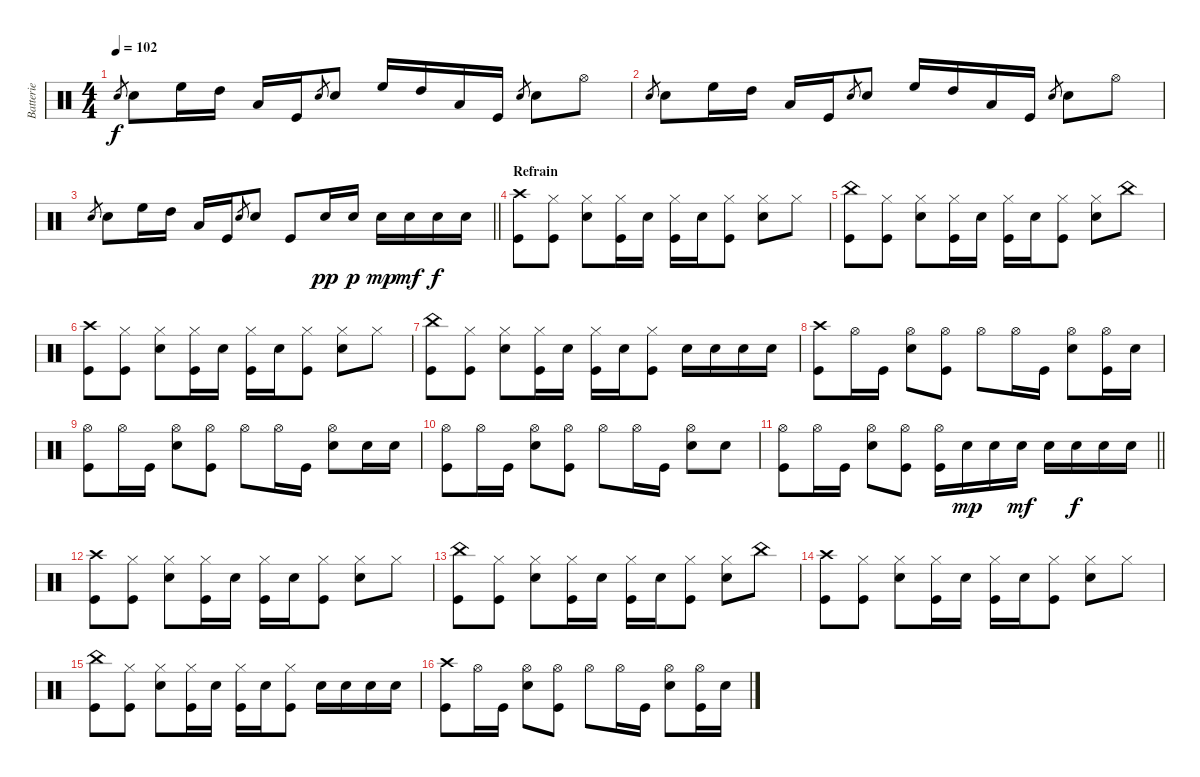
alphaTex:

\track ("Batterie" "Batterie") {instrument percussion}
\staff {score}
\articulation defaults
\ts (4 4)
\tempo 102
\clef neutral
\ks c "Snare (hit) 2".8{gr dy f} "Snare (hit) 2".8 "High Floor Tom (hit)".16 "High Tom (hit)".16 "Low Floor Tom (hit)".16 "Kick (hit)".16 "Snare (hit) 2".8{gr} "Snare (hit) 2".8 "High Floor Tom (hit)".16 "High Tom (hit)".16 "Low Floor Tom (hit)".16 "Kick (hit)".16 "Snare (hit) 2".8{gr} "Snare (hit) 2".8 "Hi-Hat (open)".8
|
"Snare (hit) 2".8{gr} "Snare (hit) 2".8 "High Floor Tom (hit)".16 "High Tom (hit)".16 "Low Floor Tom (hit)".16 "Kick (hit)".16 "Snare (hit) 2".8{gr} "Snare (hit) 2".8 "High Floor Tom (hit)".16 "High Tom (hit)".16 "Low Floor Tom (hit)".16 "Kick (hit)".16 "Snare (hit) 2".8{gr} "Snare (hit) 2".8 "Hi-Hat (open)".8 |
\barLineRight lightlight "Snare (hit) 2".8{gr} "Snare (hit) 2".8 "High Floor Tom (hit)".16 "High Tom (hit)".16 "Low Floor Tom (hit)".16 "Kick (hit)".16 "Snare (hit) 2".8{gr} "Snare (hit) 2".8 "Kick (hit)".8 "Snare (hit) 2".16{dy pp} "Snare (hit) 2".16{dy p} "Snare (hit) 2".16{dy mp} "Snare (hit) 2".16{dy mf} "Snare (hit) 2".16{dy f} "Snare (hit) 2".16
|
\section ("" "Refrain")
("Kick (hit)" "Crash high (hit)").8 ("Kick (hit)" "Hi-Hat (closed)").8 ("Snare (hit) 2" "Hi-Hat (closed)").8 ("Kick (hit)" "Hi-Hat (closed)").16 "Snare (hit) 2".16 ("Kick (hit)" "Hi-Hat (closed)").16 "Snare (hit) 2".16 ("Kick (hit)" "Hi-Hat (closed)").8 ("Snare (hit) 2" "Hi-Hat (closed)").8 "Hi-Hat (closed)".8 |
("Kick (hit)" "China (hit)").8 ("Kick (hit)" "Hi-Hat (closed)").8 ("Snare (hit) 2" "Hi-Hat (closed)").8 ("Kick (hit)" "Hi-Hat (closed)").16 "Snare (hit) 2".16 ("Kick (hit)" "Hi-Hat (closed)").16 "Snare (hit) 2".16 ("Kick (hit)" "Hi-Hat (closed)").8 ("Snare (hit) 2" "Hi-Hat (closed)").8 "China (hit)".8 |
("Kick (hit)" "Crash high (hit)").8 ("Kick (hit)" "Hi-Hat (closed)").8 ("Snare (hit) 2" "Hi-Hat (closed)").8 ("Kick (hit)" "Hi-Hat (closed)").16 "Snare (hit) 2".16 ("Kick (hit)" "Hi-Hat (closed)").16 "Snare (hit) 2".16 ("Kick (hit)" "Hi-Hat (closed)").8 ("Snare (hit) 2" "Hi-Hat (closed)").8 "Hi-Hat (closed)".8 |
("Kick (hit)" "China (hit)").8 ("Kick (hit)" "Hi-Hat (closed)").8 ("Snare (hit) 2" "Hi-Hat (closed)").8 ("Kick (hit)" "Hi-Hat (closed)").16 "Snare (hit) 2".16 ("Kick (hit)" "Hi-Hat (closed)").16 "Snare (hit) 2".16 ("Kick (hit)" "Hi-Hat (closed)").8 "Snare (hit) 2".16 "Snare (hit) 2".16 "Snare (hit) 2".16 "Snare (hit) 2".16 |
("Kick (hit)" "Crash high (hit)").8 "Hi-Hat (open)".16 "Kick (hit)".16 ("Hi-Hat (open)" "Snare (hit) 2").8 ("Hi-Hat (open)" "Kick (hit)").8 "Hi-Hat (open)".8 "Hi-Hat (open)".16 "Kick (hit)".16 ("Hi-Hat (open)" "Snare (hit) 2").8 ("Hi-Hat (open)" "Kick (hit)").16 "Snare (hit) 2".16 |
("Kick (hit)" "Hi-Hat (open)").8 "Hi-Hat (open)".16 "Kick (hit)".16 ("Hi-Hat (open)" "Snare (hit) 2").8 ("Hi-Hat (open)" "Kick (hit)").8 "Hi-Hat (open)".8 "Hi-Hat (open)".16 "Kick (hit)".16 ("Hi-Hat (open)" "Snare (hit) 2").8 "Snare (hit) 2".16 "Snare (hit) 2".16 |
("Kick (hit)" "Hi-Hat (open)").8 "Hi-Hat (open)".16 "Kick (hit)".16 ("Hi-Hat (open)" "Snare (hit) 2").8 ("Hi-Hat (open)" "Kick (hit)").8 "Hi-Hat (open)".8 "Hi-Hat (open)".16 "Kick (hit)".16 ("Hi-Hat (open)" "Snare (hit) 2").8 "Snare (hit) 2".8 |
\barLineRight lightlight
("Kick (hit)" "Hi-Hat (open)").8 "Hi-Hat (open)".16 "Kick (hit)".16 ("Hi-Hat (open)" "Snare (hit) 2").8 ("Hi-Hat (open)" "Kick (hit)").8 ("Kick (hit)" "Hi-Hat (open)").16 "Snare (hit) 2".16{dy mp} "Snare (hit) 2".16 "Snare (hit) 2".16{dy mf} "Snare (hit) 2".16 "Snare (hit) 2".16{dy f} "Snare (hit) 2".16 "Snare (hit) 2".16 |
("Kick (hit)" "Crash high (hit)").8 ("Kick (hit)" "Hi-Hat (closed)").8 ("Snare (hit) 2" "Hi-Hat (closed)").8 ("Kick (hit)" "Hi-Hat (closed)").16 "Snare (hit) 2".16 ("Kick (hit)" "Hi-Hat (closed)").16 "Snare (hit) 2".16 ("Kick (hit)" "Hi-Hat (closed)").8 ("Snare (hit) 2" "Hi-Hat (closed)").8 "Hi-Hat (closed)".8 |
("Kick (hit)" "China (hit)").8 ("Kick (hit)" "Hi-Hat (closed)").8 ("Snare (hit) 2" "Hi-Hat (closed)").8 ("Kick (hit)" "Hi-Hat (closed)").16 "Snare (hit) 2".16 ("Kick (hit)" "Hi-Hat (closed)").16 "Snare (hit) 2".16 ("Kick (hit)" "Hi-Hat (closed)").8 ("Snare (hit) 2" "Hi-Hat (closed)").8 "China (hit)".8 |
("Kick (hit)" "Crash high (hit)").8 ("Kick (hit)" "Hi-Hat (closed)").8 ("Snare (hit) 2" "Hi-Hat (closed)").8 ("Kick (hit)" "Hi-Hat (closed)").16 "Snare (hit) 2".16 ("Kick (hit)" "Hi-Hat (closed)").16 "Snare (hit) 2".16 ("Kick (hit)" "Hi-Hat (closed)").8 ("Snare (hit) 2" "Hi-Hat (closed)").8 "Hi-Hat (closed)".8 |
("Kick (hit)" "China (hit)").8 ("Kick (hit)" "Hi-Hat (closed)").8 ("Snare (hit) 2" "Hi-Hat (closed)").8 ("Kick (hit)" "Hi-Hat (closed)").16 "Snare (hit) 2".16 ("Kick (hit)" "Hi-Hat (closed)").16 "Snare (hit) 2".16 ("Kick (hit)" "Hi-Hat (closed)").8 "Snare (hit) 2".16 "Snare (hit) 2".16 "Snare (hit) 2".16 "Snare (hit) 2".16 |
("Kick (hit)" "Crash high (hit)").8 "Hi-Hat (open)".16 "Kick (hit)".16 ("Hi-Hat (open)" "Snare (hit) 2").8 ("Hi-Hat (open)" "Kick (hit)").8 "Hi-Hat (open)".8 "Hi-Hat (open)".16 "Kick (hit)".16 ("Hi-Hat (open)" "Snare (hit) 2").8 ("Hi-Hat (open)" "Kick (hit)").16 "Snare (hit) 2".16
